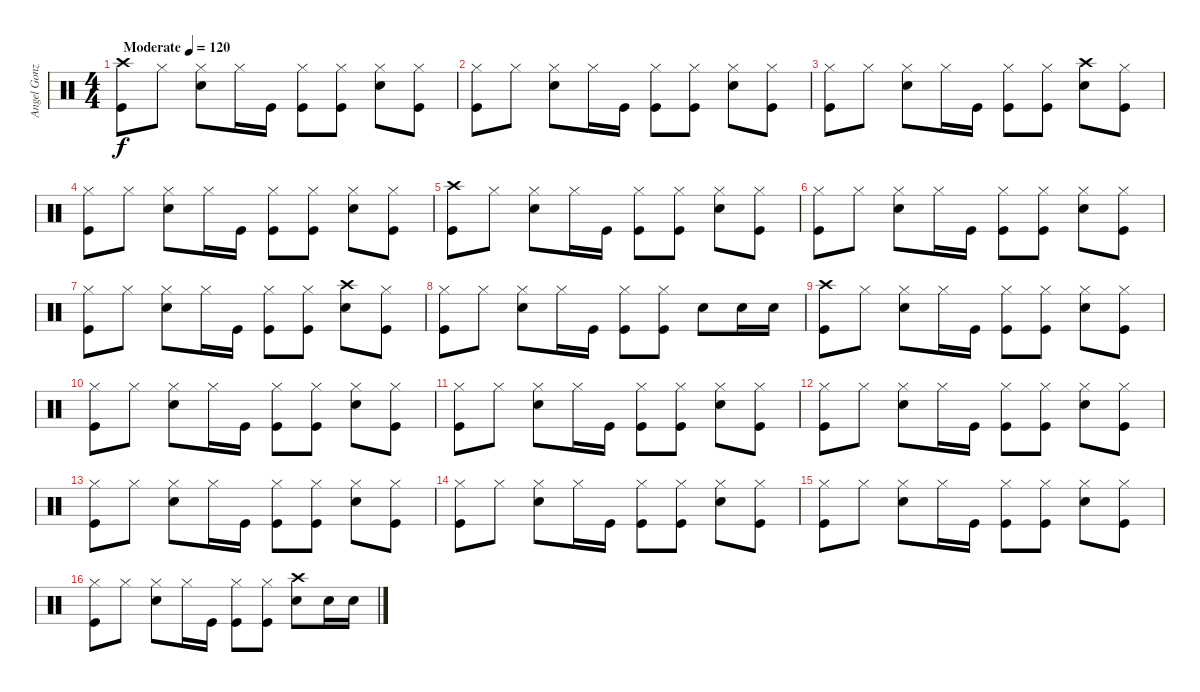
\track ("Angel Gonzalez - Batería" "Angel Gonz") {instrument percussion}
\staff {score}
\articulation defaults
\ts (4 4)
\tempo (120 "Moderate")
\clef neutral
\ks c
("Crash high (hit)" "Kick (hit)").8{dy f} "Hi-Hat (closed)".8 ("Hi-Hat (closed)" "Electric Snare (hit)").8 "Hi-Hat (closed)".16 "Kick (hit)".16 ("Hi-Hat (closed)" "Kick (hit)").8 ("Hi-Hat (closed)" "Kick (hit)").8 ("Hi-Hat (closed)" "Electric Snare (hit)").8 ("Hi-Hat (closed)" "Kick (hit)").8 |
("Hi-Hat (closed)" "Kick (hit)").8 "Hi-Hat (closed)".8 ("Hi-Hat (closed)" "Electric Snare (hit)").8 "Hi-Hat (closed)".16 "Kick (hit)".16 ("Hi-Hat (closed)" "Kick (hit)").8 ("Hi-Hat (closed)" "Kick (hit)").8 ("Hi-Hat (closed)" "Electric Snare (hit)").8 ("Hi-Hat (closed)" "Kick (hit)").8 |
("Hi-Hat (closed)" "Kick (hit)").8 "Hi-Hat (closed)".8 ("Hi-Hat (closed)" "Electric Snare (hit)").8 "Hi-Hat (closed)".16 "Kick (hit)".16 ("Hi-Hat (closed)" "Kick (hit)").8 ("Hi-Hat (closed)" "Kick (hit)").8 ("Crash high (hit)" "Electric Snare (hit)").8 ("Hi-Hat (closed)" "Kick (hit)").8 |
("Hi-Hat (closed)" "Kick (hit)").8 "Hi-Hat (closed)".8 ("Hi-Hat (closed)" "Electric Snare (hit)").8 "Hi-Hat (closed)".16 "Kick (hit)".16 ("Hi-Hat (closed)" "Kick (hit)").8 ("Hi-Hat (closed)" "Kick (hit)").8 ("Hi-Hat (closed)" "Electric Snare (hit)").8 ("Hi-Hat (closed)" "Kick (hit)").8 |
("Crash high (hit)" "Kick (hit)").8 "Hi-Hat (closed)".8 ("Hi-Hat (closed)" "Electric Snare (hit)").8 "Hi-Hat (closed)".16 "Kick (hit)".16 ("Hi-Hat (closed)" "Kick (hit)").8 ("Hi-Hat (closed)" "Kick (hit)").8 ("Hi-Hat (closed)" "Electric Snare (hit)").8 ("Hi-Hat (closed)" "Kick (hit)").8 |
("Hi-Hat (closed)" "Kick (hit)").8 "Hi-Hat (closed)".8 ("Hi-Hat (closed)" "Electric Snare (hit)").8 "Hi-Hat (closed)".16 "Kick (hit)".16 ("Hi-Hat (closed)" "Kick (hit)").8 ("Hi-Hat (closed)" "Kick (hit)").8 ("Hi-Hat (closed)" "Electric Snare (hit)").8 ("Hi-Hat (closed)" "Kick (hit)").8 |
("Hi-Hat (closed)" "Kick (hit)").8 "Hi-Hat (closed)".8 ("Hi-Hat (closed)" "Electric Snare (hit)").8 "Hi-Hat (closed)".16 "Kick (hit)".16 ("Hi-Hat (closed)" "Kick (hit)").8 ("Hi-Hat (closed)" "Kick (hit)").8 ("Crash high (hit)" "Electric Snare (hit)").8 ("Hi-Hat (closed)" "Kick (hit)").8 |
("Hi-Hat (closed)" "Kick (hit)").8 "Hi-Hat (closed)".8 ("Hi-Hat (closed)" "Electric Snare (hit)").8 "Hi-Hat (closed)".16 "Kick (hit)".16 ("Hi-Hat (closed)" "Kick (hit)").8 ("Hi-Hat (closed)" "Kick (hit)").8 "Electric Snare (hit)".8 "Electric Snare (hit)".16 "Electric Snare (hit)".16 |
("Crash high (hit)" "Kick (hit)").8 "Hi-Hat (closed)".8 ("Hi-Hat (closed)" "Electric Snare (hit)").8 "Hi-Hat (closed)".16 "Kick (hit)".16 ("Hi-Hat (closed)" "Kick (hit)").8 ("Hi-Hat (closed)" "Kick (hit)").8 ("Hi-Hat (closed)" "Electric Snare (hit)").8 ("Hi-Hat (closed)" "Kick (hit)").8 |
("Hi-Hat (closed)" "Kick (hit)").8 "Hi-Hat (closed)".8 ("Hi-Hat (closed)" "Electric Snare (hit)").8 "Hi-Hat (closed)".16 "Kick (hit)".16 ("Hi-Hat (closed)" "Kick (hit)").8 ("Hi-Hat (closed)" "Kick (hit)").8 ("Hi-Hat (closed)" "Electric Snare (hit)").8 ("Hi-Hat (closed)" "Kick (hit)").8 |
("Hi-Hat (closed)" "Kick (hit)").8 "Hi-Hat (closed)".8 ("Hi-Hat (closed)" "Electric Snare (hit)").8 "Hi-Hat (closed)".16 "Kick (hit)".16 ("Hi-Hat (closed)" "Kick (hit)").8 ("Hi-Hat (closed)" "Kick (hit)").8 ("Hi-Hat (closed)" "Electric Snare (hit)").8 ("Hi-Hat (closed)" "Kick (hit)").8 |
("Hi-Hat (closed)" "Kick (hit)").8 "Hi-Hat (closed)".8 ("Hi-Hat (closed)" "Electric Snare (hit)").8 "Hi-Hat (closed)".16 "Kick (hit)".16 ("Hi-Hat (closed)" "Kick (hit)").8 ("Hi-Hat (closed)" "Kick (hit)").8 ("Hi-Hat (closed)" "Electric Snare (hit)").8 ("Hi-Hat (closed)" "Kick (hit)").8 |
("Hi-Hat (closed)" "Kick (hit)").8 "Hi-Hat (closed)".8 ("Hi-Hat (closed)" "Electric Snare (hit)").8 "Hi-Hat (closed)".16 "Kick (hit)".16 ("Hi-Hat (closed)" "Kick (hit)").8 ("Hi-Hat (closed)" "Kick (hit)").8 ("Hi-Hat (closed)" "Electric Snare (hit)").8 ("Hi-Hat (closed)" "Kick (hit)").8 |
("Hi-Hat (closed)" "Kick (hit)").8 "Hi-Hat (closed)".8 ("Hi-Hat (closed)" "Electric Snare (hit)").8 "Hi-Hat (closed)".16 "Kick (hit)".16 ("Hi-Hat (closed)" "Kick (hit)").8 ("Hi-Hat (closed)" "Kick (hit)").8 ("Hi-Hat (closed)" "Electric Snare (hit)").8 ("Hi-Hat (closed)" "Kick (hit)").8 |
("Hi-Hat (closed)" "Kick (hit)").8 "Hi-Hat (closed)".8 ("Hi-Hat (closed)" "Electric Snare (hit)").8 "Hi-Hat (closed)".16 "Kick (hit)".16 ("Hi-Hat (closed)" "Kick (hit)").8 ("Hi-Hat (closed)" "Kick (hit)").8 ("Hi-Hat (closed)" "Electric Snare (hit)").8 ("Hi-Hat (closed)" "Kick (hit)").8 |
("Hi-Hat (closed)" "Kick (hit)").8 "Hi-Hat (closed)".8 ("Hi-Hat (closed)" "Electric Snare (hit)").8 "Hi-Hat (closed)".16 "Kick (hit)".16 ("Hi-Hat (closed)" "Kick (hit)").8 ("Hi-Hat (closed)" "Kick (hit)").8 ("Crash high (hit)" "Electric Snare (hit)").8 "Electric Snare (hit)".16 "Electric Snare (hit)".16
